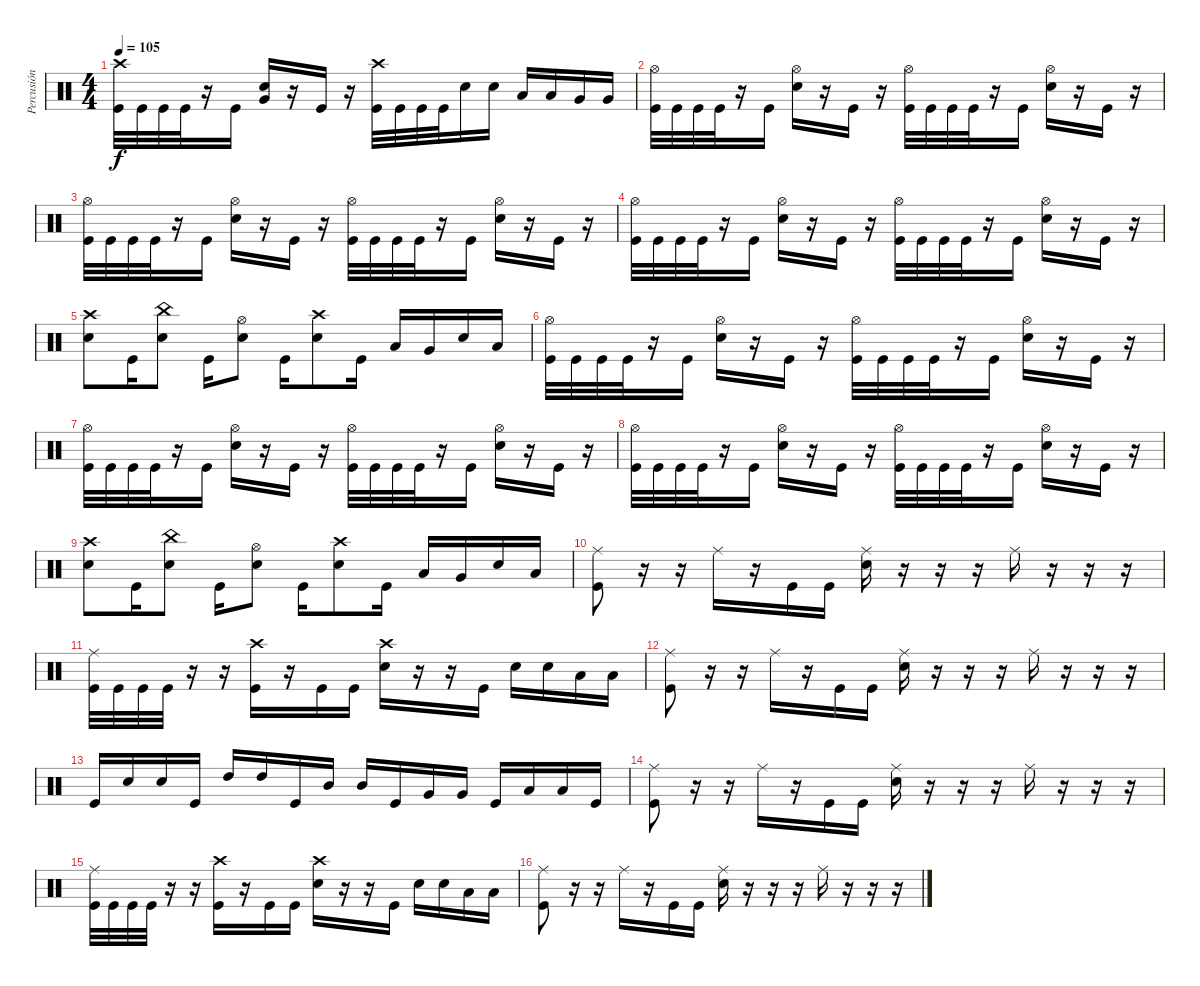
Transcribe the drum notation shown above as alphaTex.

\track ("Percusión" "Percusión") {instrument percussion}
\staff {score}
\articulation defaults
\ts (4 4)
\tempo 105
\clef neutral
\ks c
("Crash high (hit)" "Kick (hit)").32{dy f} "Kick (hit)".32 "Kick (hit)".32 "Kick (hit)".32 r.16 "Kick (hit)".16 ("Snare (hit) 2" "Very Low Tom (hit)").16 r.16 "Kick (hit)".16 r.16 ("Crash high (hit)" "Kick (hit)").32 "Kick (hit)".32 "Kick (hit)".32 "Kick (hit)".32 "Snare (hit) 2".16 "Snare (hit) 2".16 "Low Floor Tom (hit)".16 "Low Floor Tom (hit)".16 "Very Low Tom (hit)".16 "Very Low Tom (hit)".16 |
("Hi-Hat (open)" "Kick (hit)").32 "Kick (hit)".32 "Kick (hit)".32 "Kick (hit)".32 r.16 "Kick (hit)".16 ("Snare (hit) 2" "Hi-Hat (open)").16 r.16 "Kick (hit)".16 r.16 ("Hi-Hat (open)" "Kick (hit)").32 "Kick (hit)".32 "Kick (hit)".32 "Kick (hit)".32 r.16 "Kick (hit)".16 ("Snare (hit) 2" "Hi-Hat (open)").16 r.16 "Kick (hit)".16 r.16 |
("Hi-Hat (open)" "Kick (hit)").32 "Kick (hit)".32 "Kick (hit)".32 "Kick (hit)".32 r.16 "Kick (hit)".16 ("Hi-Hat (open)" "Snare (hit) 2").16 r.16 "Kick (hit)".16 r.16 ("Hi-Hat (open)" "Kick (hit)").32 "Kick (hit)".32 "Kick (hit)".32 "Kick (hit)".32 r.16 "Kick (hit)".16 ("Snare (hit) 2" "Hi-Hat (open)").16 r.16 "Kick (hit)".16 r.16 |
("Hi-Hat (open)" "Kick (hit)").32 "Kick (hit)".32 "Kick (hit)".32 "Kick (hit)".32 r.16 "Kick (hit)".16 ("Snare (hit) 2" "Hi-Hat (open)").16 r.16 "Kick (hit)".16 r.16 ("Hi-Hat (open)" "Kick (hit)").32 "Kick (hit)".32 "Kick (hit)".32 "Kick (hit)".32 r.16 "Kick (hit)".16 ("Snare (hit) 2" "Hi-Hat (open)").16 r.16 "Kick (hit)".16 r.16 |
("Crash high (hit)" "Snare (hit) 2").8 "Kick (hit)".16 ("China (hit)" "Snare (hit) 2").8 "Kick (hit)".16 ("Hi-Hat (open)" "Snare (hit) 2").8 "Kick (hit)".16 ("Crash high (hit)" "Snare (hit) 2").8 "Kick (hit)".16 "Low Floor Tom (hit)".16 "Very Low Tom (hit)".16 "Snare (hit) 2".16 "Low Floor Tom (hit)".16 |
("Hi-Hat (open)" "Kick (hit)").32 "Kick (hit)".32 "Kick (hit)".32 "Kick (hit)".32 r.16 "Kick (hit)".16 ("Snare (hit) 2" "Hi-Hat (open)").16 r.16 "Kick (hit)".16 r.16 ("Hi-Hat (open)" "Kick (hit)").32 "Kick (hit)".32 "Kick (hit)".32 "Kick (hit)".32 r.16 "Kick (hit)".16 ("Snare (hit) 2" "Hi-Hat (open)").16 r.16 "Kick (hit)".16 r.16 |
("Hi-Hat (open)" "Kick (hit)").32 "Kick (hit)".32 "Kick (hit)".32 "Kick (hit)".32 r.16 "Kick (hit)".16 ("Hi-Hat (open)" "Snare (hit) 2").16 r.16 "Kick (hit)".16 r.16 ("Hi-Hat (open)" "Kick (hit)").32 "Kick (hit)".32 "Kick (hit)".32 "Kick (hit)".32 r.16 "Kick (hit)".16 ("Snare (hit) 2" "Hi-Hat (open)").16 r.16 "Kick (hit)".16 r.16 |
("Hi-Hat (open)" "Kick (hit)").32 "Kick (hit)".32 "Kick (hit)".32 "Kick (hit)".32 r.16 "Kick (hit)".16 ("Snare (hit) 2" "Hi-Hat (open)").16 r.16 "Kick (hit)".16 r.16 ("Hi-Hat (open)" "Kick (hit)").32 "Kick (hit)".32 "Kick (hit)".32 "Kick (hit)".32 r.16 "Kick (hit)".16 ("Snare (hit) 2" "Hi-Hat (open)").16 r.16 "Kick (hit)".16 r.16 |
("Crash high (hit)" "Snare (hit) 2").8 "Kick (hit)".16 ("China (hit)" "Snare (hit) 2").8 "Kick (hit)".16 ("Hi-Hat (open)" "Snare (hit) 2").8 "Kick (hit)".16 ("Crash high (hit)" "Snare (hit) 2").8 "Kick (hit)".16 "Low Floor Tom (hit)".16 "Very Low Tom (hit)".16 "Snare (hit) 2".16 "Low Floor Tom (hit)".16 |
("Ride (middle)" "Kick (hit)").8 r.16 r.16 "Ride (middle)".16 r.16 "Kick (hit)".16 "Kick (hit)".16 ("Ride (middle)" "Snare (hit) 2").16 r.16 r.16 r.16 "Ride (middle)".16 r.16 r.16 r.16 |
("Ride (middle)" "Kick (hit)").32 "Kick (hit)".32 "Kick (hit)".32 "Kick (hit)".32 r.16 r.16 ("Crash high (hit)" "Kick (hit)").16 r.16 "Kick (hit)".16 "Kick (hit)".16 ("Crash high (hit)" "Snare (hit) 2").16 r.16 r.16 "Kick (hit)".16 "Snare (hit) 2".16 "Snare (hit) 2".16 "Low Floor Tom (hit)".16 "Low Floor Tom (hit)".16 |
("Ride (middle)" "Kick (hit)").8 r.16 r.16 "Ride (middle)".16 r.16 "Kick (hit)".16 "Kick (hit)".16 ("Ride (middle)" "Snare (hit) 2").16 r.16 r.16 r.16 "Ride (middle)".16 r.16 r.16 r.16 |
"Kick (hit)".16 "Snare (hit) 2".16 "Snare (hit) 2".16 "Kick (hit)".16 "High Tom (hit)".16 "High Tom (hit)".16 "Kick (hit)".16 "Mid Tom (hit)".16 "Mid Tom (hit)".16 "Kick (hit)".16 "Very Low Tom (hit)".16 "Very Low Tom (hit)".16 "Kick (hit)".16 "Low Floor Tom (hit)".16 "Low Floor Tom (hit)".16 "Kick (hit)".16 |
("Ride (middle)" "Kick (hit)").8 r.16 r.16 "Ride (middle)".16 r.16 "Kick (hit)".16 "Kick (hit)".16 ("Ride (middle)" "Snare (hit) 2").16 r.16 r.16 r.16 "Ride (middle)".16 r.16 r.16 r.16 |
("Ride (middle)" "Kick (hit)").32 "Kick (hit)".32 "Kick (hit)".32 "Kick (hit)".32 r.16 r.16 ("Crash high (hit)" "Kick (hit)").16 r.16 "Kick (hit)".16 "Kick (hit)".16 ("Crash high (hit)" "Snare (hit) 2").16 r.16 r.16 "Kick (hit)".16 "Snare (hit) 2".16 "Snare (hit) 2".16 "Low Floor Tom (hit)".16 "Low Floor Tom (hit)".16 |
("Ride (middle)" "Kick (hit)").8 r.16 r.16 "Ride (middle)".16 r.16 "Kick (hit)".16 "Kick (hit)".16 ("Ride (middle)" "Snare (hit) 2").16 r.16 r.16 r.16 "Ride (middle)".16 r.16 r.16 r.16
